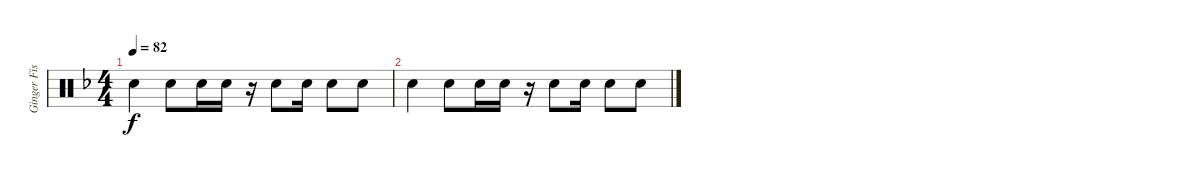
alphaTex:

\track ("Ginger Fish" "Ginger Fis") {instrument percussion}
\staff {score}
\articulation defaults
\ts (4 4)
\tempo 82
\clef neutral
\ks f "Electric Snare (hit)".4{dy f} "Electric Snare (hit)".8 "Electric Snare (hit)".16 "Electric Snare (hit)".16
r.16 "Electric Snare (hit)".8 "Electric Snare (hit)".16 "Electric Snare (hit)".8 "Electric Snare (hit)".8 |
"Electric Snare (hit)".4 "Electric Snare (hit)".8 "Electric Snare (hit)".16 "Electric Snare (hit)".16 r.16 "Electric Snare (hit)".8 "Electric Snare (hit)".16 "Electric Snare (hit)".8 "Electric Snare (hit)".8
